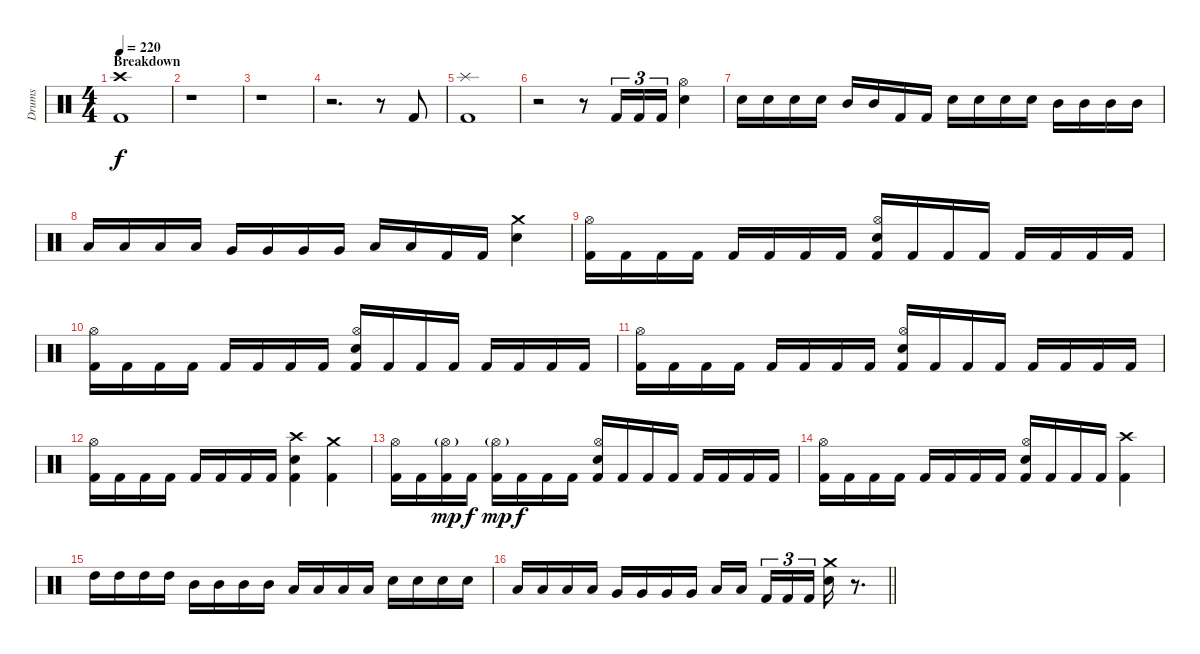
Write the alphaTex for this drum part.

\track ("Drums" "Drums") {instrument percussion}
\staff {score}
\articulation defaults
\ts (4 4)
\section ("" "Breakdown")
\tempo 220
\clef neutral
\ks c
("Crash high (hit)" "Kick (hit) 2").1{dy f} |
r.1 |
r.1 |
r.2{d} r.8 "Kick (hit) 2".8 |
("Splash (hit)" "Kick (hit) 2").1 |
r.2 r.8 "Kick (hit) 2".16{tu (3 2)} "Kick (hit) 2".16{tu (3 2)} "Kick (hit) 2".16{tu (3 2)} ("Hi-Hat (open)" "Electric Snare (hit)").4 |
"Electric Snare (hit)".16 "Electric Snare (hit)".16 "Electric Snare (hit)".16 "Electric Snare (hit)".16 "Mid Tom (hit)".16 "Mid Tom (hit)".16 "Kick (hit) 2".16 "Kick (hit) 2".16 "Electric Snare (hit)".16 "Electric Snare (hit)".16 "Electric Snare (hit)".16 "Electric Snare (hit)".16 "Mid Tom (hit)".16 "Mid Tom (hit)".16 "Mid Tom (hit)".16 "Mid Tom (hit)".16 |
"Low Tom (hit)".16 "Low Tom (hit)".16 "Low Tom (hit)".16 "Low Tom (hit)".16 "Very Low Tom (hit)".16 "Very Low Tom (hit)".16 "Very Low Tom (hit)".16 "Very Low Tom (hit)".16 "Low Floor Tom (hit)".16 "Low Floor Tom (hit)".16 "Kick (hit) 2".16 "Kick (hit) 2".16 ("Crash medium (hit)" "Electric Snare (hit)").4 |
("Hi-Hat (open)" "Kick (hit) 2").16{volume 12} "Kick (hit) 2".16 "Kick (hit) 2".16 "Kick (hit) 2".16 "Kick (hit) 2".16 "Kick (hit) 2".16 "Kick (hit) 2".16 "Kick (hit) 2".16 ("Hi-Hat (open)" "Electric Snare (hit)" "Kick (hit) 2").16 "Kick (hit) 2".16 "Kick (hit) 2".16 "Kick (hit) 2".16 "Kick (hit) 2".16 "Kick (hit) 2".16 "Kick (hit) 2".16 "Kick (hit) 2".16 |
("Hi-Hat (open)" "Kick (hit) 2").16 "Kick (hit) 2".16 "Kick (hit) 2".16 "Kick (hit) 2".16 "Kick (hit) 2".16 "Kick (hit) 2".16 "Kick (hit) 2".16 "Kick (hit) 2".16 ("Hi-Hat (open)" "Electric Snare (hit)" "Kick (hit) 2").16 "Kick (hit) 2".16 "Kick (hit) 2".16 "Kick (hit) 2".16 "Kick (hit) 2".16 "Kick (hit) 2".16 "Kick (hit) 2".16 "Kick (hit) 2".16 |
("Hi-Hat (open)" "Kick (hit) 2").16 "Kick (hit) 2".16 "Kick (hit) 2".16 "Kick (hit) 2".16 "Kick (hit) 2".16 "Kick (hit) 2".16 "Kick (hit) 2".16 "Kick (hit) 2".16 ("Hi-Hat (open)" "Electric Snare (hit)" "Kick (hit) 2").16 "Kick (hit) 2".16 "Kick (hit) 2".16 "Kick (hit) 2".16 "Kick (hit) 2".16 "Kick (hit) 2".16 "Kick (hit) 2".16 "Kick (hit) 2".16 |
("Hi-Hat (open)" "Kick (hit) 2").16 "Kick (hit) 2".16 "Kick (hit) 2".16 "Kick (hit) 2".16 "Kick (hit) 2".16 "Kick (hit) 2".16 "Kick (hit) 2".16 "Kick (hit) 2".16 ("Crash high (hit)" "Electric Snare (hit)" "Kick (hit) 2").4 ("Crash medium (hit)" "Kick (hit) 2").4 |
("Hi-Hat (open)" "Kick (hit) 2").16 "Kick (hit) 2".16 ("Hi-Hat (open)"{g} "Kick (hit) 2").16{dy mp} "Kick (hit) 2".16{dy f} ("Hi-Hat (open)"{g} "Kick (hit) 2").16{dy mp} "Kick (hit) 2".16{dy f} "Kick (hit) 2".16 "Kick (hit) 2".16 ("Hi-Hat (open)" "Electric Snare (hit)" "Kick (hit) 2").16 "Kick (hit) 2".16 "Kick (hit) 2".16 "Kick (hit) 2".16 "Kick (hit) 2".16 "Kick (hit) 2".16 "Kick (hit) 2".16 "Kick (hit) 2".16 |
("Hi-Hat (open)" "Kick (hit) 2").16 "Kick (hit) 2".16 "Kick (hit) 2".16 "Kick (hit) 2".16 "Kick (hit) 2".16 "Kick (hit) 2".16 "Kick (hit) 2".16 "Kick (hit) 2".16 ("Hi-Hat (open)" "Electric Snare (hit)" "Kick (hit) 2").16 "Kick (hit) 2".16 "Kick (hit) 2".16 "Kick (hit) 2".16 ("Crash high (hit)" "Kick (hit) 2").4 |
"High Tom (hit)".16 "High Tom (hit)".16 "High Tom (hit)".16 "High Tom (hit)".16 "Mid Tom (hit)".16 "Mid Tom (hit)".16 "Mid Tom (hit)".16 "Mid Tom (hit)".16 "Low Tom (hit)".16 "Low Tom (hit)".16 "Low Tom (hit)".16 "Low Tom (hit)".16 "Electric Snare (hit)".16 "Electric Snare (hit)".16 "Electric Snare (hit)".16 "Electric Snare (hit)".16 |
\barLineRight lightlight "Low Tom (hit)".16 "Low Tom (hit)".16 "Low Tom (hit)".16 "Low Tom (hit)".16 "Very Low Tom (hit)".16 "Very Low Tom (hit)".16 "Very Low Tom (hit)".16 "Very Low Tom (hit)".16 "Low Floor Tom (hit)".16 "Low Floor Tom (hit)".16{beam splitsecondary} "Kick (hit) 2".16{tu (3 2)} "Kick (hit) 2".16{tu (3 2)} "Kick (hit) 2".16{tu (3 2)}
("Crash medium (hit)" "Electric Snare (hit)").16 r.8{d}
